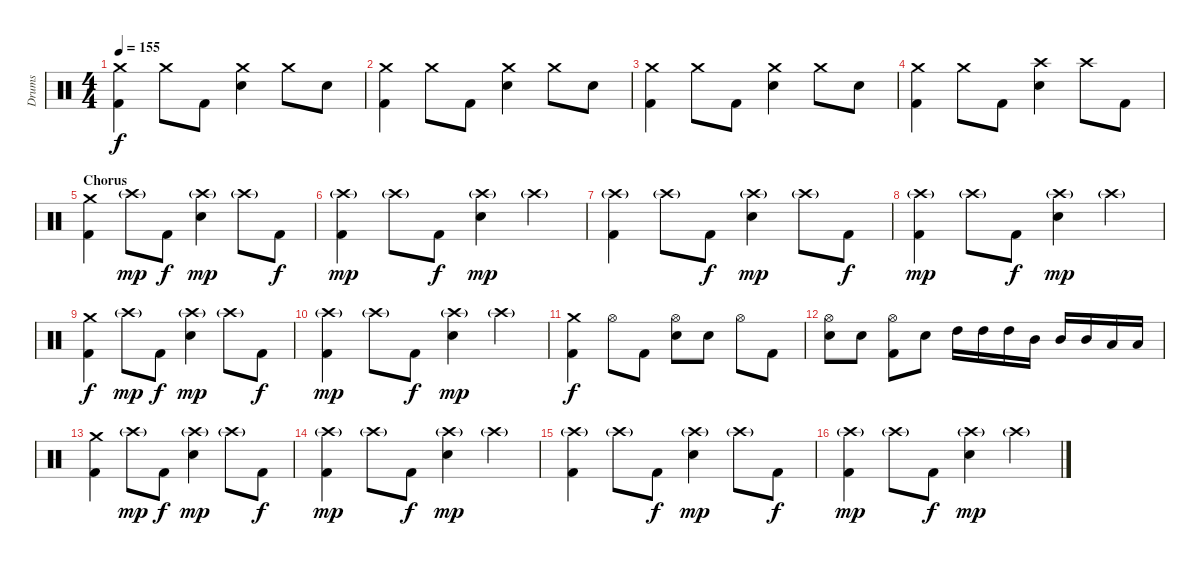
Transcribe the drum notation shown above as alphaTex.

\track ("Drums" "Drums") {instrument percussion}
\staff {score}
\articulation defaults
\ts (4 4)
\tempo 155
\clef neutral
\ks c
("Crash medium (hit)" "Kick (hit) 2").4{dy f} "Crash medium (hit)".8 "Kick (hit) 2".8 ("Crash medium (hit)" "Electric Snare (hit)").4 "Crash medium (hit)".8 "Electric Snare (hit)".8 |
("Crash medium (hit)" "Kick (hit) 2").4 "Crash medium (hit)".8 "Kick (hit) 2".8 ("Crash medium (hit)" "Electric Snare (hit)").4 "Crash medium (hit)".8 "Electric Snare (hit)".8 |
("Crash medium (hit)" "Kick (hit) 2").4 "Crash medium (hit)".8 "Kick (hit) 2".8 ("Crash medium (hit)" "Electric Snare (hit)").4 "Crash medium (hit)".8 "Electric Snare (hit)".8 |
("Crash medium (hit)" "Kick (hit) 2").4 "Crash medium (hit)".8 "Kick (hit) 2".8 ("Crash high (hit)" "Electric Snare (hit)").4 "Crash high (hit)".8 "Kick (hit) 2".8 |
\section ("" "Chorus")
("Crash medium (hit)" "Kick (hit) 2").4 "Crash high (hit)"{g}.8{dy mp} "Kick (hit) 2".8{dy f} ("Crash high (hit)"{g} "Electric Snare (hit)").4{dy mp} "Crash high (hit)"{g}.8 "Kick (hit) 2".8{dy f} |
("Crash high (hit)"{g} "Kick (hit) 2").4{dy mp} "Crash high (hit)"{g}.8 "Kick (hit) 2".8{dy f} ("Crash high (hit)"{g} "Electric Snare (hit)").4{dy mp} "Crash high (hit)"{g}.4 |
("Crash high (hit)"{g} "Kick (hit) 2").4 "Crash high (hit)"{g}.8 "Kick (hit) 2".8{dy f} ("Crash high (hit)"{g} "Electric Snare (hit)").4{dy mp} "Crash high (hit)"{g}.8 "Kick (hit) 2".8{dy f} |
("Crash high (hit)"{g} "Kick (hit) 2").4{dy mp} "Crash high (hit)"{g}.8 "Kick (hit) 2".8{dy f} ("Crash high (hit)"{g} "Electric Snare (hit)").4{dy mp} "Crash high (hit)"{g}.4 |
("Crash medium (hit)" "Kick (hit) 2").4{dy f} "Crash high (hit)"{g}.8{dy mp} "Kick (hit) 2".8{dy f} ("Crash high (hit)"{g} "Electric Snare (hit)").4{dy mp} "Crash high (hit)"{g}.8 "Kick (hit) 2".8{dy f} |
("Crash high (hit)"{g} "Kick (hit) 2").4{dy mp} "Crash high (hit)"{g}.8 "Kick (hit) 2".8{dy f} ("Crash high (hit)"{g} "Electric Snare (hit)").4{dy mp} "Crash high (hit)"{g}.4 |
("Crash medium (hit)" "Kick (hit) 2").4{dy f} "Hi-Hat (open)".8 "Kick (hit) 2".8 ("Hi-Hat (open)" "Electric Snare (hit)").8 "Electric Snare (hit)".8 "Hi-Hat (open)".8 "Kick (hit) 2".8 |
("Hi-Hat (open)" "Electric Snare (hit)").8 "Electric Snare (hit)".8 ("Hi-Hat (open)" "Kick (hit) 2").8 "Electric Snare (hit)".8 "High Tom (hit)".16 "High Tom (hit)".16 "High Tom (hit)".16 "Mid Tom (hit)".16 "Mid Tom (hit)".16 "Mid Tom (hit)".16 "Low Tom (hit)".16 "Low Tom (hit)".16 |
("Crash medium (hit)" "Kick (hit) 2").4 "Crash high (hit)"{g}.8{dy mp} "Kick (hit) 2".8{dy f} ("Crash high (hit)"{g} "Electric Snare (hit)").4{dy mp} "Crash high (hit)"{g}.8 "Kick (hit) 2".8{dy f} |
("Crash high (hit)"{g} "Kick (hit) 2").4{dy mp} "Crash high (hit)"{g}.8 "Kick (hit) 2".8{dy f} ("Crash high (hit)"{g} "Electric Snare (hit)").4{dy mp} "Crash high (hit)"{g}.4 |
("Crash high (hit)"{g} "Kick (hit) 2").4 "Crash high (hit)"{g}.8 "Kick (hit) 2".8{dy f} ("Crash high (hit)"{g} "Electric Snare (hit)").4{dy mp} "Crash high (hit)"{g}.8 "Kick (hit) 2".8{dy f} |
("Crash high (hit)"{g} "Kick (hit) 2").4{dy mp} "Crash high (hit)"{g}.8 "Kick (hit) 2".8{dy f} ("Crash high (hit)"{g} "Electric Snare (hit)").4{dy mp} "Crash high (hit)"{g}.4
